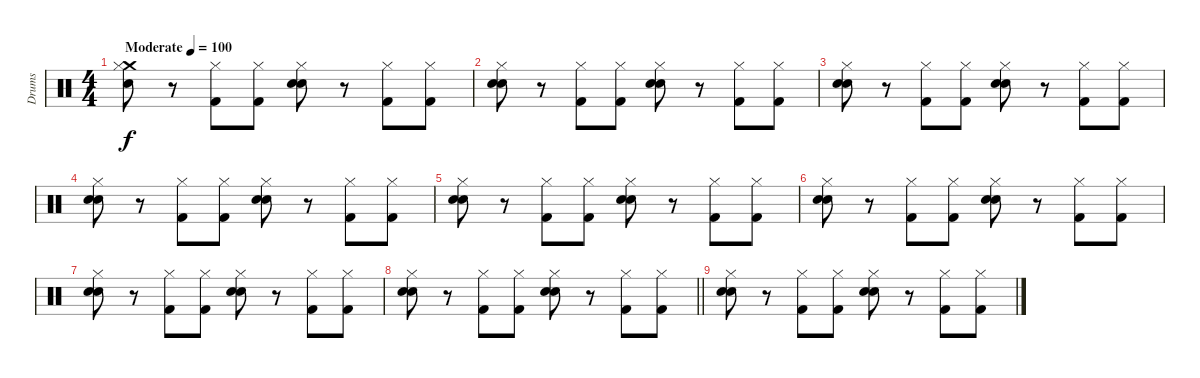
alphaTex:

\track ("Drums" "Drums") {instrument percussion}
\staff {score}
\articulation defaults
\ts (4 4)
\tempo (100 "Moderate")
\clef neutral
\ks c
("Snare (hit) 2" "Crash medium (hit)" "Hi-Hat (closed)").8{dy f} r.8 ("Hi-Hat (closed)" "Kick (hit) 2").8 ("Hi-Hat (closed)" "Kick (hit) 2").8 ("Hi-Hat (closed)" "Hand Clap (hit)" "Snare (hit) 2").8 r.8 ("Hi-Hat (closed)" "Kick (hit) 2").8 ("Hi-Hat (closed)" "Kick (hit) 2").8 |
("Snare (hit) 2" "Hand Clap (hit)" "Hi-Hat (closed)").8 r.8 ("Hi-Hat (closed)" "Kick (hit) 2").8 ("Hi-Hat (closed)" "Kick (hit) 2").8 ("Hi-Hat (closed)" "Hand Clap (hit)" "Snare (hit) 2").8 r.8 ("Hi-Hat (closed)" "Kick (hit) 2").8 ("Hi-Hat (closed)" "Kick (hit) 2").8 |
("Snare (hit) 2" "Hand Clap (hit)" "Hi-Hat (closed)").8 r.8 ("Hi-Hat (closed)" "Kick (hit) 2").8 ("Hi-Hat (closed)" "Kick (hit) 2").8 ("Hi-Hat (closed)" "Hand Clap (hit)" "Snare (hit) 2").8 r.8 ("Hi-Hat (closed)" "Kick (hit) 2").8 ("Hi-Hat (closed)" "Kick (hit) 2").8 |
("Snare (hit) 2" "Hand Clap (hit)" "Hi-Hat (closed)").8 r.8 ("Hi-Hat (closed)" "Kick (hit) 2").8 ("Hi-Hat (closed)" "Kick (hit) 2").8 ("Hi-Hat (closed)" "Hand Clap (hit)" "Snare (hit) 2").8 r.8 ("Hi-Hat (closed)" "Kick (hit) 2").8 ("Hi-Hat (closed)" "Kick (hit) 2").8 |
("Snare (hit) 2" "Hand Clap (hit)" "Hi-Hat (closed)").8 r.8 ("Hi-Hat (closed)" "Kick (hit) 2").8 ("Hi-Hat (closed)" "Kick (hit) 2").8 ("Hi-Hat (closed)" "Hand Clap (hit)" "Snare (hit) 2").8 r.8 ("Hi-Hat (closed)" "Kick (hit) 2").8 ("Hi-Hat (closed)" "Kick (hit) 2").8 |
("Snare (hit) 2" "Hand Clap (hit)" "Hi-Hat (closed)").8 r.8 ("Hi-Hat (closed)" "Kick (hit) 2").8 ("Hi-Hat (closed)" "Kick (hit) 2").8 ("Hi-Hat (closed)" "Hand Clap (hit)" "Snare (hit) 2").8 r.8 ("Hi-Hat (closed)" "Kick (hit) 2").8 ("Hi-Hat (closed)" "Kick (hit) 2").8 |
("Snare (hit) 2" "Hand Clap (hit)" "Hi-Hat (closed)").8 r.8 ("Hi-Hat (closed)" "Kick (hit) 2").8 ("Hi-Hat (closed)" "Kick (hit) 2").8 ("Hi-Hat (closed)" "Hand Clap (hit)" "Snare (hit) 2").8 r.8 ("Hi-Hat (closed)" "Kick (hit) 2").8 ("Hi-Hat (closed)" "Kick (hit) 2").8 |
\barLineRight lightlight
("Snare (hit) 2" "Hand Clap (hit)" "Hi-Hat (closed)").8 r.8 ("Hi-Hat (closed)" "Kick (hit) 2").8 ("Hi-Hat (closed)" "Kick (hit) 2").8 ("Hi-Hat (closed)" "Hand Clap (hit)" "Snare (hit) 2").8 r.8 ("Hi-Hat (closed)" "Kick (hit) 2").8 ("Hi-Hat (closed)" "Kick (hit) 2").8 |
("Snare (hit) 2" "Hand Clap (hit)" "Hi-Hat (closed)").8 r.8 ("Hi-Hat (closed)" "Kick (hit) 2").8 ("Hi-Hat (closed)" "Kick (hit) 2").8 ("Hi-Hat (closed)" "Hand Clap (hit)" "Snare (hit) 2").8 r.8 ("Hi-Hat (closed)" "Kick (hit) 2").8 ("Hi-Hat (closed)" "Kick (hit) 2").8
